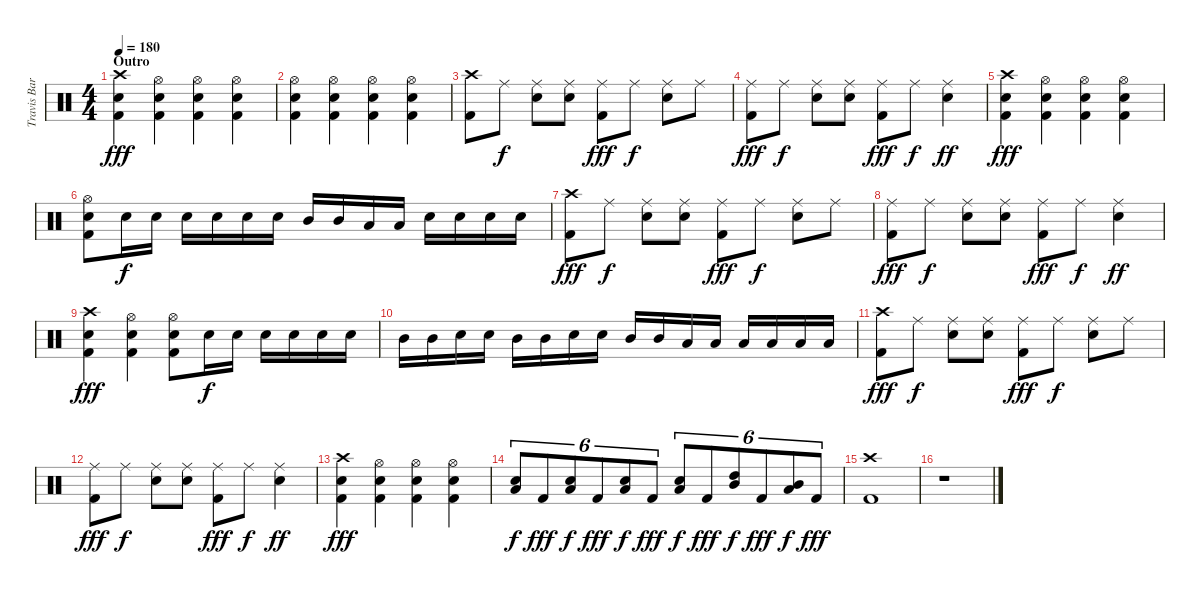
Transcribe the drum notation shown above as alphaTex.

\track ("Travis Barker" "Travis Bar") {instrument percussion}
\staff {score}
\articulation defaults
\ts (4 4)
\section ("" "Outro")
\tempo 180
\clef neutral
\ks c
("Crash high (hit)" "Electric Snare (hit)" "Kick (hit) 2").4{dy fff} ("Hi-Hat (open)" "Electric Snare (hit)" "Kick (hit) 2").4 ("Hi-Hat (open)" "Electric Snare (hit)" "Kick (hit) 2").4 ("Hi-Hat (open)" "Electric Snare (hit)" "Kick (hit) 2").4 |
("Hi-Hat (open)" "Electric Snare (hit)" "Kick (hit) 2").4 ("Hi-Hat (open)" "Electric Snare (hit)" "Kick (hit) 2").4 ("Hi-Hat (open)" "Electric Snare (hit)" "Kick (hit) 2").4 ("Hi-Hat (open)" "Electric Snare (hit)" "Kick (hit) 2").4 |
("Crash high (hit)" "Kick (hit) 2").8 "Ride (middle)".8{dy f} ("Ride (middle)" "Electric Snare (hit)").8 ("Ride (middle)" "Electric Snare (hit)").8 ("Ride (middle)" "Kick (hit) 2").8{dy fff} "Ride (middle)".8{dy f} ("Ride (middle)" "Electric Snare (hit)").8 "Ride (middle)".8 |
("Ride (middle)" "Kick (hit) 2").8{dy fff} "Ride (middle)".8{dy f} ("Ride (middle)" "Electric Snare (hit)").8 ("Ride (middle)" "Electric Snare (hit)").8 ("Ride (middle)" "Kick (hit) 2").8{dy fff} "Ride (middle)".8{dy f} ("Ride (middle)" "Electric Snare (hit)").4{dy ff} |
("Crash high (hit)" "Electric Snare (hit)" "Kick (hit) 2").4{dy fff} ("Hi-Hat (open)" "Electric Snare (hit)" "Kick (hit) 2").4 ("Hi-Hat (open)" "Electric Snare (hit)" "Kick (hit) 2").4 ("Hi-Hat (open)" "Electric Snare (hit)" "Kick (hit) 2").4 |
("Hi-Hat (open)" "Electric Snare (hit)" "Kick (hit) 2").8 "Electric Snare (hit)".16{dy f} "Electric Snare (hit)".16 "Electric Snare (hit)".16 "Electric Snare (hit)".16 "Electric Snare (hit)".16 "Electric Snare (hit)".16 "Mid Tom (hit)".16 "Mid Tom (hit)".16 "Low Tom (hit)".16 "Low Tom (hit)".16 "Electric Snare (hit)".16 "Electric Snare (hit)".16 "Electric Snare (hit)".16 "Electric Snare (hit)".16 |
("Crash high (hit)" "Kick (hit) 2").8{dy fff} "Ride (middle)".8{dy f} ("Ride (middle)" "Electric Snare (hit)").8 ("Ride (middle)" "Electric Snare (hit)").8 ("Ride (middle)" "Kick (hit) 2").8{dy fff} "Ride (middle)".8{dy f} ("Ride (middle)" "Electric Snare (hit)").8 "Ride (middle)".8 |
("Ride (middle)" "Kick (hit) 2").8{dy fff} "Ride (middle)".8{dy f} ("Ride (middle)" "Electric Snare (hit)").8 ("Ride (middle)" "Electric Snare (hit)").8 ("Ride (middle)" "Kick (hit) 2").8{dy fff} "Ride (middle)".8{dy f} ("Ride (middle)" "Electric Snare (hit)").4{dy ff} |
("Crash high (hit)" "Electric Snare (hit)" "Kick (hit) 2").4{dy fff} ("Hi-Hat (open)" "Electric Snare (hit)" "Kick (hit) 2").4 ("Hi-Hat (open)" "Electric Snare (hit)" "Kick (hit) 2").8 "Electric Snare (hit)".16{dy f} "Electric Snare (hit)".16 "Electric Snare (hit)".16 "Electric Snare (hit)".16 "Electric Snare (hit)".16 "Electric Snare (hit)".16 |
"Mid Tom (hit)".16 "Mid Tom (hit)".16 "Electric Snare (hit)".16 "Electric Snare (hit)".16 "Mid Tom (hit)".16 "Mid Tom (hit)".16 "Electric Snare (hit)".16 "Electric Snare (hit)".16 "Mid Tom (hit)".16 "Mid Tom (hit)".16 "Low Tom (hit)".16 "Low Tom (hit)".16 "Low Tom (hit)".16 "Low Tom (hit)".16 "Low Tom (hit)".16 "Low Tom (hit)".16 |
("Crash high (hit)" "Kick (hit) 2").8{dy fff} "Ride (middle)".8{dy f} ("Ride (middle)" "Electric Snare (hit)").8 ("Ride (middle)" "Electric Snare (hit)").8 ("Ride (middle)" "Kick (hit) 2").8{dy fff} "Ride (middle)".8{dy f} ("Ride (middle)" "Electric Snare (hit)").8 "Ride (middle)".8 |
("Ride (middle)" "Kick (hit) 2").8{dy fff} "Ride (middle)".8{dy f} ("Ride (middle)" "Electric Snare (hit)").8 ("Ride (middle)" "Electric Snare (hit)").8 ("Ride (middle)" "Kick (hit) 2").8{dy fff} "Ride (middle)".8{dy f} ("Ride (middle)" "Electric Snare (hit)").4{dy ff} |
("Crash high (hit)" "Electric Snare (hit)" "Kick (hit) 2").4{dy fff} ("Hi-Hat (open)" "Electric Snare (hit)" "Kick (hit) 2").4 ("Hi-Hat (open)" "Electric Snare (hit)" "Kick (hit) 2").4 ("Hi-Hat (open)" "Electric Snare (hit)" "Kick (hit) 2").4 |
("Low Tom (hit)" "Electric Snare (hit)").8{tu (6 4) dy f} "Kick (hit) 2".8{tu (6 4) dy fff} ("Low Tom (hit)" "Electric Snare (hit)").8{tu (6 4) dy f} "Kick (hit) 2".8{tu (6 4) dy fff} ("Low Tom (hit)" "Electric Snare (hit)").8{tu (6 4) dy f} "Kick (hit) 2".8{tu (6 4) dy fff} ("Low Tom (hit)" "Electric Snare (hit)").8{tu (6 4) dy f} "Kick (hit) 2".8{tu (6 4) dy fff} ("High Tom (hit)" "Mid Tom (hit)").8{tu (6 4) dy f} "Kick (hit) 2".8{tu (6 4) dy fff} ("Mid Tom (hit)" "Low Tom (hit)").8{tu (6 4) dy f} "Kick (hit) 2".8{tu (6 4) dy fff} |
("Crash high (hit)" "Kick (hit) 2").1 |
r.1
